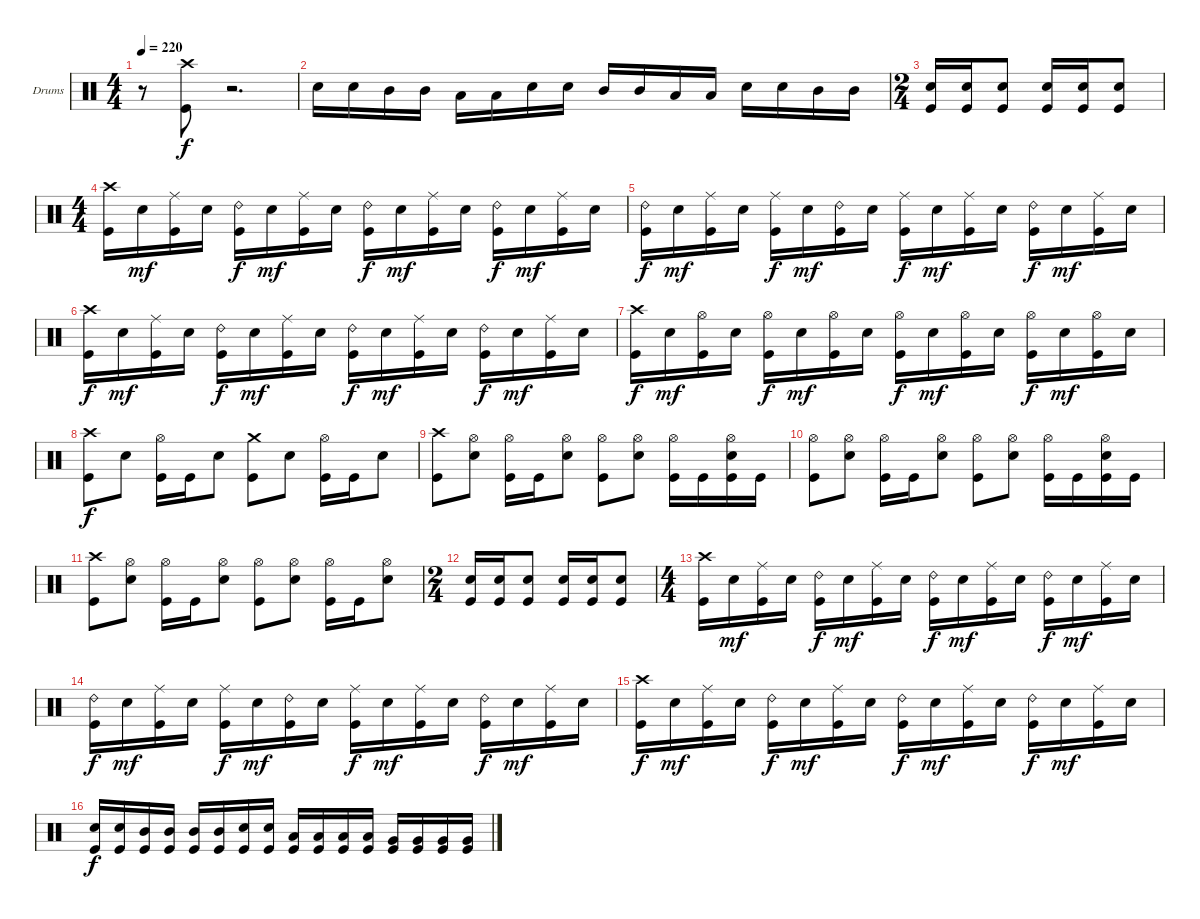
\defaultSystemsLayout 4
\bracketExtendMode groupsimilarinstruments
\firstSystemTrackNameOrientation horizontal
\otherSystemsTrackNameOrientation horizontal
\track ("Drumkit" "Drums") {instrument percussion}
\staff {score}
\articulation defaults
\ts (4 4)
\tempo 220
\clef neutral
\scale
0.333333
\ks c
r.8{dy f} ("Crash high (hit)" "Kick (hit)").8 r.2{d} |
\scale
0.333333 "Snare (hit) 2".16 "Snare (hit) 2".16 "Mid Tom (hit)".16 "Mid Tom (hit)".16 "Low Tom (hit)".16 "Low Tom (hit)".16 "Snare (hit) 2".16 "Snare (hit) 2".16 "Mid Tom (hit)".16 "Mid Tom (hit)".16 "Low Tom (hit)".16 "Low Tom (hit)".16 "Snare (hit) 2".16 "Snare (hit) 2".16 "Mid Tom (hit)".16 "Mid Tom (hit)".16 |
\ts (2 4)
\scale
0.333333 ("Snare (hit) 2" "Kick (hit)").16 ("Snare (hit) 2" "Kick (hit)").16 ("Snare (hit) 2" "Kick (hit)").8 ("Snare (hit) 2" "Kick (hit)").16 ("Snare (hit) 2" "Kick (hit)").16 ("Snare (hit) 2" "Kick (hit)").8 |
\ts (4 4)
\scale
0.333333 ("Crash high (hit)" "Kick (hit)").16 "Snare (hit) 2".16{dy mf} ("Ride (middle)" "Kick (hit)").16 "Snare (hit) 2".16 ("Ride (bell) 2" "Kick (hit)").16{dy f} "Snare (hit) 2".16{dy mf} ("Ride (middle)" "Kick (hit)").16 "Snare (hit) 2".16 ("Ride (bell) 2" "Kick (hit)").16{dy f} "Snare (hit) 2".16{dy mf} ("Ride (middle)" "Kick (hit)").16 "Snare (hit) 2".16 ("Ride (bell) 2" "Kick (hit)").16{dy f} "Snare (hit) 2".16{dy mf} ("Ride (middle)" "Kick (hit)").16 "Snare (hit) 2".16 |
\scale
0.333333 ("Ride (bell) 2" "Kick (hit)").16{dy f} "Snare (hit) 2".16{dy mf} ("Ride (middle)" "Kick (hit)").16 "Snare (hit) 2".16 ("Ride (middle)" "Kick (hit)").16{dy f} "Snare (hit) 2".16{dy mf} ("Ride (bell) 2" "Kick (hit)").16 "Snare (hit) 2".16 ("Ride (middle)" "Kick (hit)").16{dy f} "Snare (hit) 2".16{dy mf} ("Ride (middle)" "Kick (hit)").16 "Snare (hit) 2".16 ("Ride (bell) 2" "Kick (hit)").16{dy f} "Snare (hit) 2".16{dy mf} ("Ride (middle)" "Kick (hit)").16 "Snare (hit) 2".16 |
\scale
0.333333 ("Crash high (hit)" "Kick (hit)").16{dy f} "Snare (hit) 2".16{dy mf} ("Ride (middle)" "Kick (hit)").16 "Snare (hit) 2".16 ("Ride (bell) 2" "Kick (hit)").16{dy f} "Snare (hit) 2".16{dy mf} ("Ride (middle)" "Kick (hit)").16 "Snare (hit) 2".16 ("Ride (bell) 2" "Kick (hit)").16{dy f} "Snare (hit) 2".16{dy mf} ("Ride (middle)" "Kick (hit)").16 "Snare (hit) 2".16 ("Ride (bell) 2" "Kick (hit)").16{dy f} "Snare (hit) 2".16{dy mf} ("Ride (middle)" "Kick (hit)").16 "Snare (hit) 2".16 |
\scale
0.333333 ("Crash high (hit)" "Kick (hit)").16{dy f} "Snare (hit) 2".16{dy mf} ("Hi-Hat (open)" "Kick (hit)").16 "Snare (hit) 2".16 ("Hi-Hat (open)" "Kick (hit)").16{dy f} "Snare (hit) 2".16{dy mf} ("Hi-Hat (open)" "Kick (hit)").16 "Snare (hit) 2".16 ("Hi-Hat (open)" "Kick (hit)").16{dy f} "Snare (hit) 2".16{dy mf} ("Hi-Hat (open)" "Kick (hit)").16 "Snare (hit) 2".16 ("Hi-Hat (open)" "Kick (hit)").16{dy f} "Snare (hit) 2".16{dy mf} ("Hi-Hat (open)" "Kick (hit)").16 "Snare (hit) 2".16 |
\scale
0.333333 ("Crash high (hit)" "Kick (hit)").8{dy f} "Snare (hit) 2".8 ("Hi-Hat (open)" "Kick (hit)").16 "Kick (hit)".16 "Snare (hit) 2".8 ("Crash medium (hit)" "Kick (hit)").8 "Snare (hit) 2".8 ("Hi-Hat (open)" "Kick (hit)").16 "Kick (hit)".16 "Snare (hit) 2".8 |
\scale
0.333333 ("Crash high (hit)" "Kick (hit)").8 ("Hi-Hat (open)" "Snare (hit) 2").8 ("Hi-Hat (open)" "Kick (hit)").16 "Kick (hit)".16 ("Hi-Hat (open)" "Snare (hit) 2").8 ("Hi-Hat (open)" "Kick (hit)").8 ("Hi-Hat (open)" "Snare (hit) 2").8 ("Hi-Hat (open)" "Kick (hit)").16 "Kick (hit)".16 ("Hi-Hat (open)" "Snare (hit) 2" "Kick (hit)").16 "Kick (hit)".16 |
\scale
0.333333 ("Hi-Hat (open)" "Kick (hit)").8 ("Hi-Hat (open)" "Snare (hit) 2").8 ("Hi-Hat (open)" "Kick (hit)").16 "Kick (hit)".16 ("Hi-Hat (open)" "Snare (hit) 2").8 ("Hi-Hat (open)" "Kick (hit)").8 ("Hi-Hat (open)" "Snare (hit) 2").8 ("Hi-Hat (open)" "Kick (hit)").16 "Kick (hit)".16 ("Hi-Hat (open)" "Snare (hit) 2" "Kick (hit)").16 "Kick (hit)".16 |
\scale
0.333333 ("Crash high (hit)" "Kick (hit)").8 ("Hi-Hat (open)" "Snare (hit) 2").8 ("Hi-Hat (open)" "Kick (hit)").16 "Kick (hit)".16 ("Hi-Hat (open)" "Snare (hit) 2").8 ("Hi-Hat (open)" "Kick (hit)").8 ("Hi-Hat (open)" "Snare (hit) 2").8 ("Hi-Hat (open)" "Kick (hit)").16 "Kick (hit)".16 ("Hi-Hat (open)" "Snare (hit) 2").8 |
\ts (2 4)
\scale
0.333333 ("Snare (hit) 2" "Kick (hit)").16 ("Snare (hit) 2" "Kick (hit)").16 ("Snare (hit) 2" "Kick (hit)").8 ("Snare (hit) 2" "Kick (hit)").16 ("Snare (hit) 2" "Kick (hit)").16 ("Snare (hit) 2" "Kick (hit)").8 |
\ts (4 4)
\scale
0.333333 ("Crash high (hit)" "Kick (hit)").16 "Snare (hit) 2".16{dy mf} ("Ride (middle)" "Kick (hit)").16 "Snare (hit) 2".16 ("Ride (bell) 2" "Kick (hit)").16{dy f} "Snare (hit) 2".16{dy mf} ("Ride (middle)" "Kick (hit)").16 "Snare (hit) 2".16 ("Ride (bell) 2" "Kick (hit)").16{dy f} "Snare (hit) 2".16{dy mf} ("Ride (middle)" "Kick (hit)").16 "Snare (hit) 2".16 ("Ride (bell) 2" "Kick (hit)").16{dy f} "Snare (hit) 2".16{dy mf} ("Ride (middle)" "Kick (hit)").16 "Snare (hit) 2".16 |
\scale
0.333333 ("Ride (bell) 2" "Kick (hit)").16{dy f} "Snare (hit) 2".16{dy mf} ("Ride (middle)" "Kick (hit)").16 "Snare (hit) 2".16 ("Ride (middle)" "Kick (hit)").16{dy f} "Snare (hit) 2".16{dy mf} ("Ride (bell) 2" "Kick (hit)").16 "Snare (hit) 2".16 ("Ride (middle)" "Kick (hit)").16{dy f} "Snare (hit) 2".16{dy mf} ("Ride (middle)" "Kick (hit)").16 "Snare (hit) 2".16 ("Ride (bell) 2" "Kick (hit)").16{dy f} "Snare (hit) 2".16{dy mf} ("Ride (middle)" "Kick (hit)").16 "Snare (hit) 2".16 |
\scale
0.333333 ("Crash high (hit)" "Kick (hit)").16{dy f} "Snare (hit) 2".16{dy mf} ("Ride (middle)" "Kick (hit)").16 "Snare (hit) 2".16 ("Ride (bell) 2" "Kick (hit)").16{dy f} "Snare (hit) 2".16{dy mf} ("Ride (middle)" "Kick (hit)").16 "Snare (hit) 2".16 ("Ride (bell) 2" "Kick (hit)").16{dy f} "Snare (hit) 2".16{dy mf} ("Ride (middle)" "Kick (hit)").16 "Snare (hit) 2".16 ("Ride (bell) 2" "Kick (hit)").16{dy f} "Snare (hit) 2".16{dy mf} ("Ride (middle)" "Kick (hit)").16 "Snare (hit) 2".16 |
\scale
0.333333 ("Snare (hit) 2" "Kick (hit)").16{dy f} ("Snare (hit) 2" "Kick (hit)").16 ("Mid Tom (hit)" "Kick (hit)").16 ("Mid Tom (hit)" "Kick (hit)").16 ("Mid Tom (hit)" "Kick (hit)").16 ("Mid Tom (hit)" "Kick (hit)").16 ("Snare (hit) 2" "Kick (hit)").16 ("Snare (hit) 2" "Kick (hit)").16 ("Low Tom (hit)" "Kick (hit)").16 ("Low Tom (hit)" "Kick (hit)").16 ("Low Tom (hit)" "Kick (hit)").16 ("Low Tom (hit)" "Kick (hit)").16 ("Very Low Tom (hit)" "Kick (hit)").16 ("Very Low Tom (hit)" "Kick (hit)").16 ("Very Low Tom (hit)" "Kick (hit)").16 ("Very Low Tom (hit)" "Kick (hit)").16
